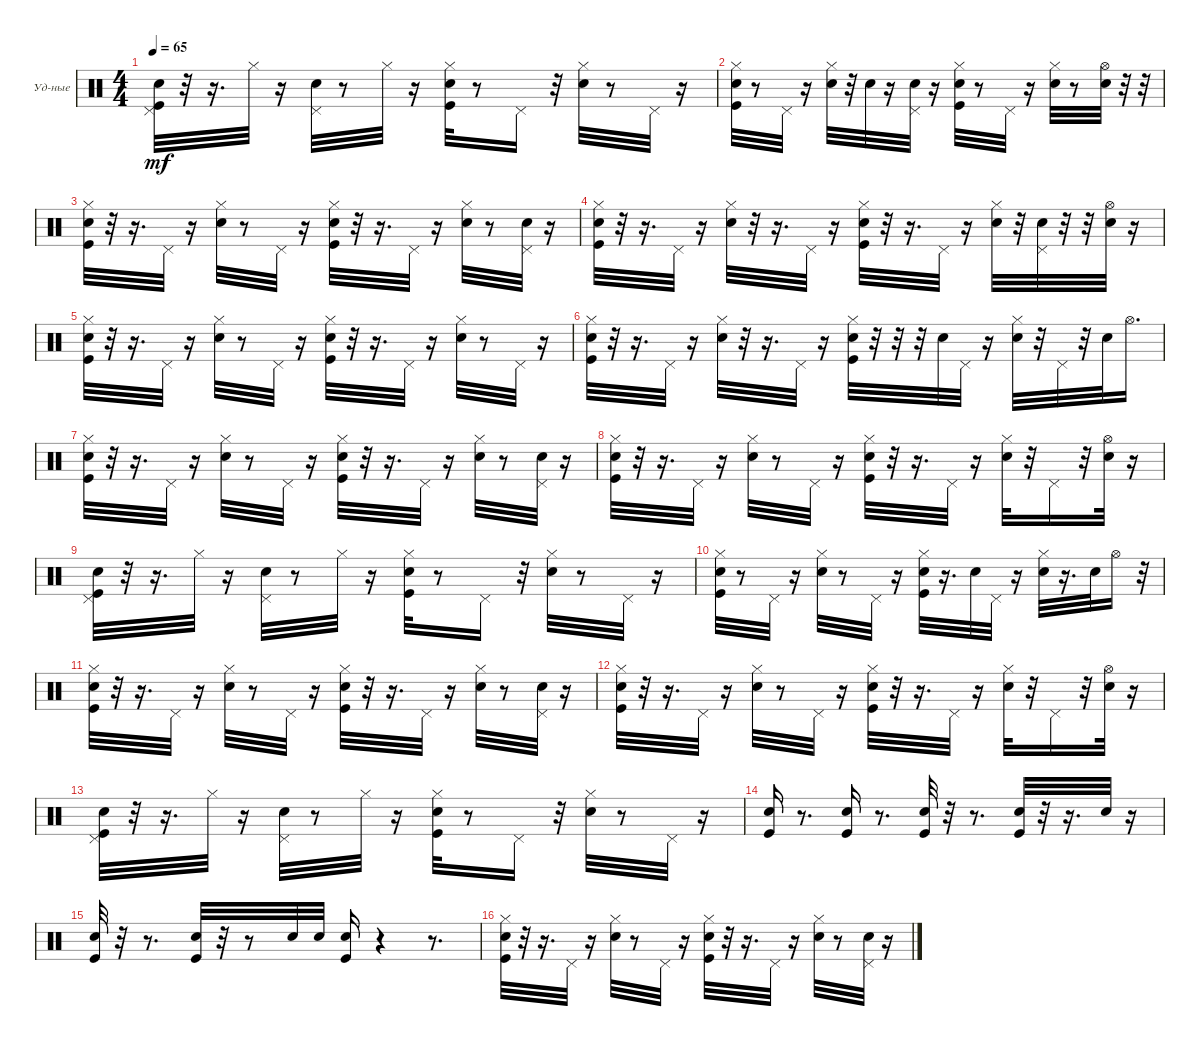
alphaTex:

\bracketExtendMode groupsimilarinstruments
\firstSystemTrackNameOrientation horizontal
\otherSystemsTrackNameOrientation horizontal
\track ("Ударные" "Уд-ные") {instrument percussion}
\staff {score}
\articulation defaults
\ts (4 4)
\tempo 65
\clef neutral
\ks c
("Kick (hit)" "Pedal Hi-Hat (hit)" "Snare (hit) 2").32{dy mf} r.32 r.16{d} "Hi-Hat (closed)".32 r.16 ("Pedal Hi-Hat (hit)" "Snare (hit) 2").32 r.8 "Hi-Hat (closed)".32 r.16 ("Hi-Hat (closed)" "Kick (hit)" "Snare (hit) 2").32 r.8 "Pedal Hi-Hat (hit)".16 r.32 ("Hi-Hat (closed)" "Snare (hit) 2").32 r.8 "Pedal Hi-Hat (hit)".32 r.16 |
("Kick (hit)" "Hi-Hat (closed)" "Snare (hit) 2").32 r.8 "Pedal Hi-Hat (hit)".32 r.16 ("Hi-Hat (closed)" "Snare (hit) 2").32 r.32 "Snare (hit) 2".32 r.16 ("Pedal Hi-Hat (hit)" "Snare (hit) 2").32 r.16 ("Kick (hit)" "Hi-Hat (closed)" "Snare (hit) 2").32 r.8 "Pedal Hi-Hat (hit)".32 r.16 ("Hi-Hat (closed)" "Snare (hit) 2").32 r.8 ("Hi-Hat (open)" "Snare (hit) 2").32 r.32 r.32 |
("Hi-Hat (closed)" "Kick (hit)" "Snare (hit) 2").32 r.32 r.16{d} "Pedal Hi-Hat (hit)".32 r.16 ("Hi-Hat (closed)" "Snare (hit) 2").32 r.8 "Pedal Hi-Hat (hit)".32 r.16 ("Kick (hit)" "Hi-Hat (closed)" "Snare (hit) 2").32 r.32 r.16{d} "Pedal Hi-Hat (hit)".32 r.16 ("Hi-Hat (closed)" "Snare (hit) 2").32 r.8 ("Pedal Hi-Hat (hit)" "Snare (hit) 2").32 r.16 |
("Kick (hit)" "Hi-Hat (closed)" "Snare (hit) 2").32 r.32 r.16{d} "Pedal Hi-Hat (hit)".32 r.16 ("Hi-Hat (closed)" "Snare (hit) 2").32 r.32 r.16{d} "Pedal Hi-Hat (hit)".32 r.16 ("Kick (hit)" "Hi-Hat (closed)" "Snare (hit) 2").32 r.32 r.16{d} "Pedal Hi-Hat (hit)".32 r.16 ("Hi-Hat (closed)" "Snare (hit) 2").32 r.32 ("Pedal Hi-Hat (hit)" "Snare (hit) 2").32 r.32 r.32 ("Hi-Hat (open)" "Snare (hit) 2").32 r.16 |
("Kick (hit)" "Hi-Hat (closed)" "Snare (hit) 2").32 r.32 r.16{d} "Pedal Hi-Hat (hit)".32 r.16 ("Hi-Hat (closed)" "Snare (hit) 2").32 r.8 "Pedal Hi-Hat (hit)".32 r.16 ("Kick (hit)" "Hi-Hat (closed)" "Snare (hit) 2").32 r.32 r.16{d} "Pedal Hi-Hat (hit)".32 r.16 ("Hi-Hat (closed)" "Snare (hit) 2").32 r.8 "Pedal Hi-Hat (hit)".32 r.16 |
("Kick (hit)" "Hi-Hat (closed)" "Snare (hit) 2").32 r.32 r.16{d} "Pedal Hi-Hat (hit)".32 r.16 ("Hi-Hat (closed)" "Snare (hit) 2").32 r.32 r.16{d} "Pedal Hi-Hat (hit)".32 r.16 ("Hi-Hat (closed)" "Kick (hit)" "Snare (hit) 2").32 r.32 r.32 r.32 "Snare (hit) 2".32 "Pedal Hi-Hat (hit)".32 r.16 ("Hi-Hat (closed)" "Snare (hit) 2").32 r.32 "Pedal Hi-Hat (hit)".32 r.32 "Snare (hit) 2".32 "Hi-Hat (open)".16{d} |
("Kick (hit)" "Hi-Hat (closed)" "Snare (hit) 2").32 r.32 r.16{d} "Pedal Hi-Hat (hit)".32 r.16 ("Hi-Hat (closed)" "Snare (hit) 2").32 r.8 "Pedal Hi-Hat (hit)".32 r.16 ("Hi-Hat (closed)" "Kick (hit)" "Snare (hit) 2").32 r.32 r.16{d} "Pedal Hi-Hat (hit)".32 r.16 ("Hi-Hat (closed)" "Snare (hit) 2").32 r.8 ("Pedal Hi-Hat (hit)" "Snare (hit) 2").32 r.16 |
("Kick (hit)" "Hi-Hat (closed)" "Snare (hit) 2").32 r.32 r.16{d} "Pedal Hi-Hat (hit)".32 r.16 ("Hi-Hat (closed)" "Snare (hit) 2").32 r.8 "Pedal Hi-Hat (hit)".32 r.16 ("Kick (hit)" "Hi-Hat (closed)" "Snare (hit) 2").32 r.32 r.16{d} "Pedal Hi-Hat (hit)".32 r.16 ("Hi-Hat (closed)" "Snare (hit) 2").32 r.32 "Pedal Hi-Hat (hit)".16 r.32 ("Hi-Hat (open)" "Snare (hit) 2").32 r.16 |
("Kick (hit)" "Pedal Hi-Hat (hit)" "Snare (hit) 2").32 r.32 r.16{d} "Hi-Hat (closed)".32 r.16 ("Pedal Hi-Hat (hit)" "Snare (hit) 2").32 r.8 "Hi-Hat (closed)".32 r.16 ("Hi-Hat (closed)" "Kick (hit)" "Snare (hit) 2").32 r.8 "Pedal Hi-Hat (hit)".16 r.32 ("Hi-Hat (closed)" "Snare (hit) 2").32 r.8 "Pedal Hi-Hat (hit)".32 r.16 |
("Kick (hit)" "Hi-Hat (closed)" "Snare (hit) 2").32 r.8 "Pedal Hi-Hat (hit)".32 r.16 ("Hi-Hat (closed)" "Snare (hit) 2").32 r.8 "Pedal Hi-Hat (hit)".32 r.16 ("Kick (hit)" "Hi-Hat (closed)" "Snare (hit) 2").32 r.16{d} "Snare (hit) 2".32 "Pedal Hi-Hat (hit)".32 r.16 ("Hi-Hat (closed)" "Snare (hit) 2").32 r.16{d} "Snare (hit) 2".32 "Hi-Hat (open)".16 r.32 |
("Kick (hit)" "Hi-Hat (closed)" "Snare (hit) 2").32 r.32 r.16{d} "Pedal Hi-Hat (hit)".32 r.16 ("Hi-Hat (closed)" "Snare (hit) 2").32 r.8 "Pedal Hi-Hat (hit)".32 r.16 ("Hi-Hat (closed)" "Kick (hit)" "Snare (hit) 2").32 r.32 r.16{d} "Pedal Hi-Hat (hit)".32 r.16 ("Hi-Hat (closed)" "Snare (hit) 2").32 r.8 ("Pedal Hi-Hat (hit)" "Snare (hit) 2").32 r.16 |
("Kick (hit)" "Hi-Hat (closed)" "Snare (hit) 2").32 r.32 r.16{d} "Pedal Hi-Hat (hit)".32 r.16 ("Hi-Hat (closed)" "Snare (hit) 2").32 r.8 "Pedal Hi-Hat (hit)".32 r.16 ("Kick (hit)" "Hi-Hat (closed)" "Snare (hit) 2").32 r.32 r.16{d} "Pedal Hi-Hat (hit)".32 r.16 ("Hi-Hat (closed)" "Snare (hit) 2").32 r.32 "Pedal Hi-Hat (hit)".16 r.32 ("Hi-Hat (open)" "Snare (hit) 2").32 r.16 |
("Kick (hit)" "Pedal Hi-Hat (hit)" "Snare (hit) 2").32 r.32 r.16{d} "Hi-Hat (closed)".32 r.16 ("Pedal Hi-Hat (hit)" "Snare (hit) 2").32 r.8 "Hi-Hat (closed)".32 r.16 ("Hi-Hat (closed)" "Kick (hit)" "Snare (hit) 2").32 r.8 "Pedal Hi-Hat (hit)".16 r.32 ("Hi-Hat (closed)" "Snare (hit) 2").32 r.8 "Pedal Hi-Hat (hit)".32 r.16 |
("Kick (hit)" "Snare (hit) 2").16 r.8{d} ("Kick (hit)" "Snare (hit) 2").16 r.8{d} ("Kick (hit)" "Snare (hit) 2").32 r.32 r.8{d} ("Kick (hit)" "Snare (hit) 2").32 r.32 r.16{d} "Snare (hit) 2".32 r.16 |
("Kick (hit)" "Snare (hit) 2").32 r.32 r.8{d} ("Kick (hit)" "Snare (hit) 2").32 r.32 r.8 "Snare (hit) 2".32 "Snare (hit) 2".32 ("Kick (hit)" "Snare (hit) 2").16 r.4 r.8{d} |
("Hi-Hat (closed)" "Kick (hit)" "Snare (hit) 2").32 r.32 r.16{d} "Pedal Hi-Hat (hit)".32 r.16 ("Hi-Hat (closed)" "Snare (hit) 2").32 r.8 "Pedal Hi-Hat (hit)".32 r.16 ("Kick (hit)" "Hi-Hat (closed)" "Snare (hit) 2").32 r.32 r.16{d} "Pedal Hi-Hat (hit)".32 r.16 ("Hi-Hat (closed)" "Snare (hit) 2").32 r.8 ("Pedal Hi-Hat (hit)" "Snare (hit) 2").32 r.16
